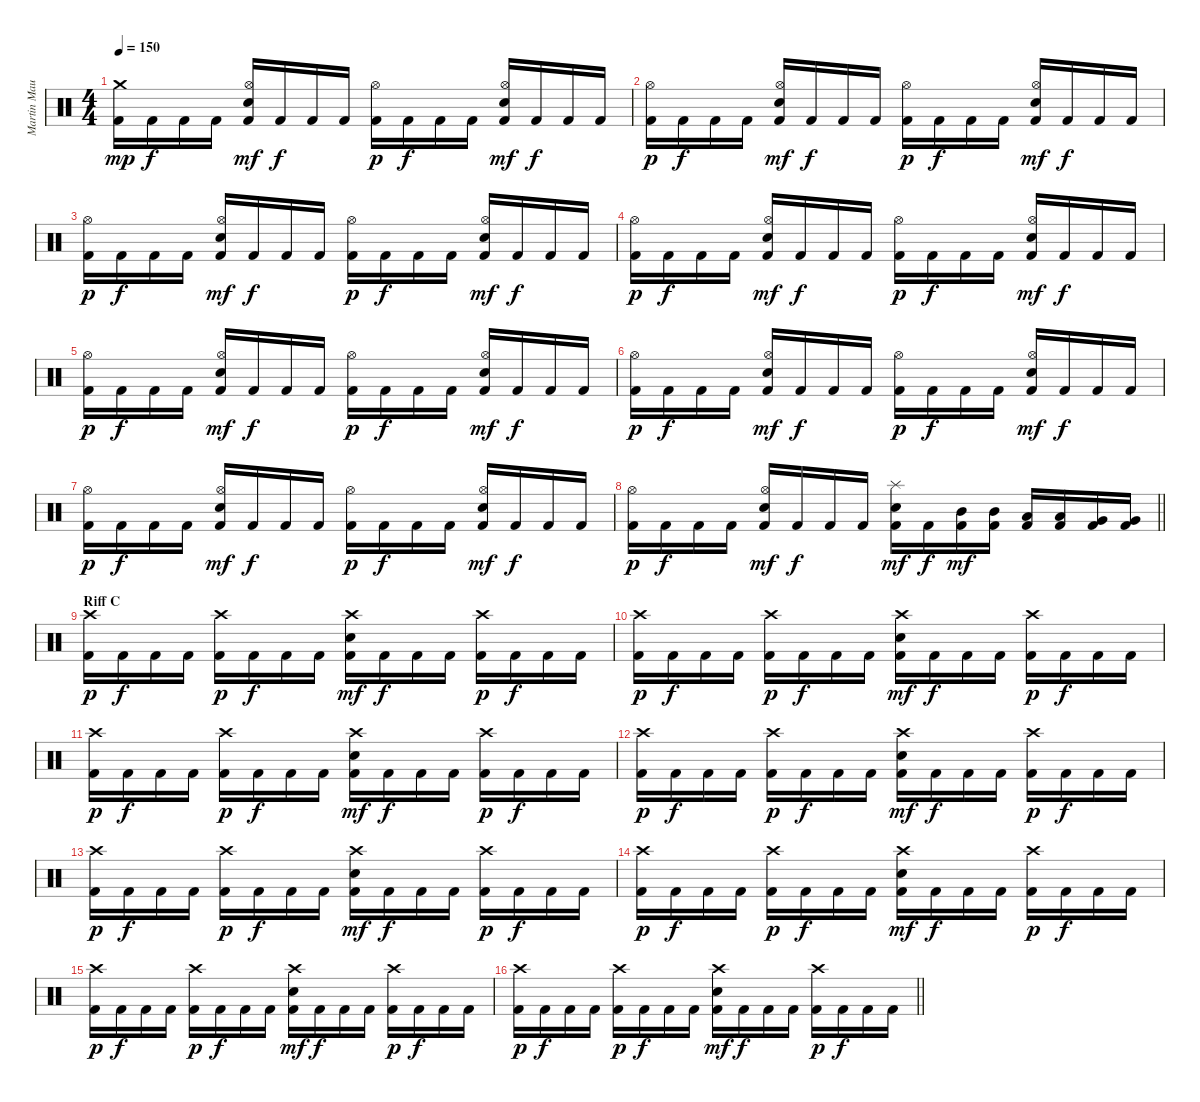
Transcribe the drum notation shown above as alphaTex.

\track ("Martin Maurais" "Martin Mau") {instrument percussion}
\staff {score}
\articulation defaults
\ts (4 4)
\tempo 150
\clef neutral
\ks c
("Crash medium (hit)" "Kick (hit) 2").16{dy mp} "Kick (hit) 2".16{dy f} "Kick (hit) 2".16 "Kick (hit) 2".16 ("Hi-Hat (open)" "Electric Snare (hit)" "Kick (hit) 2").16{dy mf} "Kick (hit) 2".16{dy f} "Kick (hit) 2".16 "Kick (hit) 2".16 ("Hi-Hat (open)" "Kick (hit) 2").16{dy p} "Kick (hit) 2".16{dy f} "Kick (hit) 2".16 "Kick (hit) 2".16 ("Hi-Hat (open)" "Electric Snare (hit)" "Kick (hit) 2").16{dy mf} "Kick (hit) 2".16{dy f} "Kick (hit) 2".16 "Kick (hit) 2".16 |
("Hi-Hat (open)" "Kick (hit) 2").16{dy p} "Kick (hit) 2".16{dy f} "Kick (hit) 2".16 "Kick (hit) 2".16 ("Hi-Hat (open)" "Electric Snare (hit)" "Kick (hit) 2").16{dy mf} "Kick (hit) 2".16{dy f} "Kick (hit) 2".16 "Kick (hit) 2".16 ("Hi-Hat (open)" "Kick (hit) 2").16{dy p} "Kick (hit) 2".16{dy f} "Kick (hit) 2".16 "Kick (hit) 2".16 ("Hi-Hat (open)" "Electric Snare (hit)" "Kick (hit) 2").16{dy mf} "Kick (hit) 2".16{dy f} "Kick (hit) 2".16 "Kick (hit) 2".16 |
("Hi-Hat (open)" "Kick (hit) 2").16{dy p} "Kick (hit) 2".16{dy f} "Kick (hit) 2".16 "Kick (hit) 2".16 ("Hi-Hat (open)" "Electric Snare (hit)" "Kick (hit) 2").16{dy mf} "Kick (hit) 2".16{dy f} "Kick (hit) 2".16 "Kick (hit) 2".16 ("Hi-Hat (open)" "Kick (hit) 2").16{dy p} "Kick (hit) 2".16{dy f} "Kick (hit) 2".16 "Kick (hit) 2".16 ("Hi-Hat (open)" "Electric Snare (hit)" "Kick (hit) 2").16{dy mf} "Kick (hit) 2".16{dy f} "Kick (hit) 2".16 "Kick (hit) 2".16 |
("Hi-Hat (open)" "Kick (hit) 2").16{dy p} "Kick (hit) 2".16{dy f} "Kick (hit) 2".16 "Kick (hit) 2".16 ("Hi-Hat (open)" "Electric Snare (hit)" "Kick (hit) 2").16{dy mf} "Kick (hit) 2".16{dy f} "Kick (hit) 2".16 "Kick (hit) 2".16 ("Hi-Hat (open)" "Kick (hit) 2").16{dy p} "Kick (hit) 2".16{dy f} "Kick (hit) 2".16 "Kick (hit) 2".16 ("Hi-Hat (open)" "Electric Snare (hit)" "Kick (hit) 2").16{dy mf} "Kick (hit) 2".16{dy f} "Kick (hit) 2".16 "Kick (hit) 2".16 |
("Hi-Hat (open)" "Kick (hit) 2").16{dy p} "Kick (hit) 2".16{dy f} "Kick (hit) 2".16 "Kick (hit) 2".16 ("Hi-Hat (open)" "Electric Snare (hit)" "Kick (hit) 2").16{dy mf} "Kick (hit) 2".16{dy f} "Kick (hit) 2".16 "Kick (hit) 2".16 ("Hi-Hat (open)" "Kick (hit) 2").16{dy p} "Kick (hit) 2".16{dy f} "Kick (hit) 2".16 "Kick (hit) 2".16 ("Hi-Hat (open)" "Electric Snare (hit)" "Kick (hit) 2").16{dy mf} "Kick (hit) 2".16{dy f} "Kick (hit) 2".16 "Kick (hit) 2".16 |
("Hi-Hat (open)" "Kick (hit) 2").16{dy p} "Kick (hit) 2".16{dy f} "Kick (hit) 2".16 "Kick (hit) 2".16 ("Hi-Hat (open)" "Electric Snare (hit)" "Kick (hit) 2").16{dy mf} "Kick (hit) 2".16{dy f} "Kick (hit) 2".16 "Kick (hit) 2".16 ("Hi-Hat (open)" "Kick (hit) 2").16{dy p} "Kick (hit) 2".16{dy f} "Kick (hit) 2".16 "Kick (hit) 2".16 ("Hi-Hat (open)" "Electric Snare (hit)" "Kick (hit) 2").16{dy mf} "Kick (hit) 2".16{dy f} "Kick (hit) 2".16 "Kick (hit) 2".16 |
("Hi-Hat (open)" "Kick (hit) 2").16{dy p} "Kick (hit) 2".16{dy f} "Kick (hit) 2".16 "Kick (hit) 2".16 ("Hi-Hat (open)" "Electric Snare (hit)" "Kick (hit) 2").16{dy mf} "Kick (hit) 2".16{dy f} "Kick (hit) 2".16 "Kick (hit) 2".16 ("Hi-Hat (open)" "Kick (hit) 2").16{dy p} "Kick (hit) 2".16{dy f} "Kick (hit) 2".16 "Kick (hit) 2".16 ("Hi-Hat (open)" "Electric Snare (hit)" "Kick (hit) 2").16{dy mf} "Kick (hit) 2".16{dy f} "Kick (hit) 2".16 "Kick (hit) 2".16 |
\barLineRight lightlight
("Hi-Hat (open)" "Kick (hit) 2").16{dy p} "Kick (hit) 2".16{dy f} "Kick (hit) 2".16 "Kick (hit) 2".16 ("Hi-Hat (open)" "Electric Snare (hit)" "Kick (hit) 2").16{dy mf} "Kick (hit) 2".16{dy f} "Kick (hit) 2".16 "Kick (hit) 2".16 ("Splash (hit)" "Electric Snare (hit)" "Kick (hit) 2").16{dy mf} "Kick (hit) 2".16{dy f} ("Mid Tom (hit)" "Kick (hit) 2").16{dy mf} ("Mid Tom (hit)" "Kick (hit) 2").16 ("Low Tom (hit)" "Kick (hit) 2").16 ("Low Tom (hit)" "Kick (hit) 2").16 ("Very Low Tom (hit)" "Kick (hit) 2").16 ("Very Low Tom (hit)" "Kick (hit) 2").16 |
\section ("" "Riff C")
("Crash high (hit)" "Kick (hit) 2").16{dy p} "Kick (hit) 2".16{dy f} "Kick (hit) 2".16 "Kick (hit) 2".16 ("Crash high (hit)" "Kick (hit) 2").16{dy p} "Kick (hit) 2".16{dy f} "Kick (hit) 2".16 "Kick (hit) 2".16 ("Crash high (hit)" "Electric Snare (hit)" "Kick (hit) 2").16{dy mf} "Kick (hit) 2".16{dy f} "Kick (hit) 2".16 "Kick (hit) 2".16 ("Crash high (hit)" "Kick (hit) 2").16{dy p} "Kick (hit) 2".16{dy f} "Kick (hit) 2".16 "Kick (hit) 2".16 |
("Crash high (hit)" "Kick (hit) 2").16{dy p} "Kick (hit) 2".16{dy f} "Kick (hit) 2".16 "Kick (hit) 2".16 ("Crash high (hit)" "Kick (hit) 2").16{dy p} "Kick (hit) 2".16{dy f} "Kick (hit) 2".16 "Kick (hit) 2".16 ("Crash high (hit)" "Electric Snare (hit)" "Kick (hit) 2").16{dy mf} "Kick (hit) 2".16{dy f} "Kick (hit) 2".16 "Kick (hit) 2".16 ("Crash high (hit)" "Kick (hit) 2").16{dy p} "Kick (hit) 2".16{dy f} "Kick (hit) 2".16 "Kick (hit) 2".16 |
("Crash high (hit)" "Kick (hit) 2").16{dy p} "Kick (hit) 2".16{dy f} "Kick (hit) 2".16 "Kick (hit) 2".16 ("Crash high (hit)" "Kick (hit) 2").16{dy p} "Kick (hit) 2".16{dy f} "Kick (hit) 2".16 "Kick (hit) 2".16 ("Crash high (hit)" "Electric Snare (hit)" "Kick (hit) 2").16{dy mf} "Kick (hit) 2".16{dy f} "Kick (hit) 2".16 "Kick (hit) 2".16 ("Crash high (hit)" "Kick (hit) 2").16{dy p} "Kick (hit) 2".16{dy f} "Kick (hit) 2".16 "Kick (hit) 2".16 |
("Crash high (hit)" "Kick (hit) 2").16{dy p} "Kick (hit) 2".16{dy f} "Kick (hit) 2".16 "Kick (hit) 2".16 ("Crash high (hit)" "Kick (hit) 2").16{dy p} "Kick (hit) 2".16{dy f} "Kick (hit) 2".16 "Kick (hit) 2".16 ("Crash high (hit)" "Electric Snare (hit)" "Kick (hit) 2").16{dy mf} "Kick (hit) 2".16{dy f} "Kick (hit) 2".16 "Kick (hit) 2".16 ("Crash high (hit)" "Kick (hit) 2").16{dy p} "Kick (hit) 2".16{dy f} "Kick (hit) 2".16 "Kick (hit) 2".16 |
("Crash high (hit)" "Kick (hit) 2").16{dy p} "Kick (hit) 2".16{dy f} "Kick (hit) 2".16 "Kick (hit) 2".16 ("Crash high (hit)" "Kick (hit) 2").16{dy p} "Kick (hit) 2".16{dy f} "Kick (hit) 2".16 "Kick (hit) 2".16 ("Crash high (hit)" "Electric Snare (hit)" "Kick (hit) 2").16{dy mf} "Kick (hit) 2".16{dy f} "Kick (hit) 2".16 "Kick (hit) 2".16 ("Crash high (hit)" "Kick (hit) 2").16{dy p} "Kick (hit) 2".16{dy f} "Kick (hit) 2".16 "Kick (hit) 2".16 |
("Crash high (hit)" "Kick (hit) 2").16{dy p} "Kick (hit) 2".16{dy f} "Kick (hit) 2".16 "Kick (hit) 2".16 ("Crash high (hit)" "Kick (hit) 2").16{dy p} "Kick (hit) 2".16{dy f} "Kick (hit) 2".16 "Kick (hit) 2".16 ("Crash high (hit)" "Electric Snare (hit)" "Kick (hit) 2").16{dy mf} "Kick (hit) 2".16{dy f} "Kick (hit) 2".16 "Kick (hit) 2".16 ("Crash high (hit)" "Kick (hit) 2").16{dy p} "Kick (hit) 2".16{dy f} "Kick (hit) 2".16 "Kick (hit) 2".16 |
("Crash high (hit)" "Kick (hit) 2").16{dy p} "Kick (hit) 2".16{dy f} "Kick (hit) 2".16 "Kick (hit) 2".16 ("Crash high (hit)" "Kick (hit) 2").16{dy p} "Kick (hit) 2".16{dy f} "Kick (hit) 2".16 "Kick (hit) 2".16 ("Crash high (hit)" "Electric Snare (hit)" "Kick (hit) 2").16{dy mf} "Kick (hit) 2".16{dy f} "Kick (hit) 2".16 "Kick (hit) 2".16 ("Crash high (hit)" "Kick (hit) 2").16{dy p} "Kick (hit) 2".16{dy f} "Kick (hit) 2".16 "Kick (hit) 2".16 |
\barLineRight lightlight
("Crash high (hit)" "Kick (hit) 2").16{dy p} "Kick (hit) 2".16{dy f} "Kick (hit) 2".16 "Kick (hit) 2".16 ("Crash high (hit)" "Kick (hit) 2").16{dy p} "Kick (hit) 2".16{dy f} "Kick (hit) 2".16 "Kick (hit) 2".16 ("Crash high (hit)" "Electric Snare (hit)" "Kick (hit) 2").16{dy mf} "Kick (hit) 2".16{dy f} "Kick (hit) 2".16 "Kick (hit) 2".16 ("Crash high (hit)" "Kick (hit) 2").16{dy p} "Kick (hit) 2".16{dy f} "Kick (hit) 2".16 "Kick (hit) 2".16
